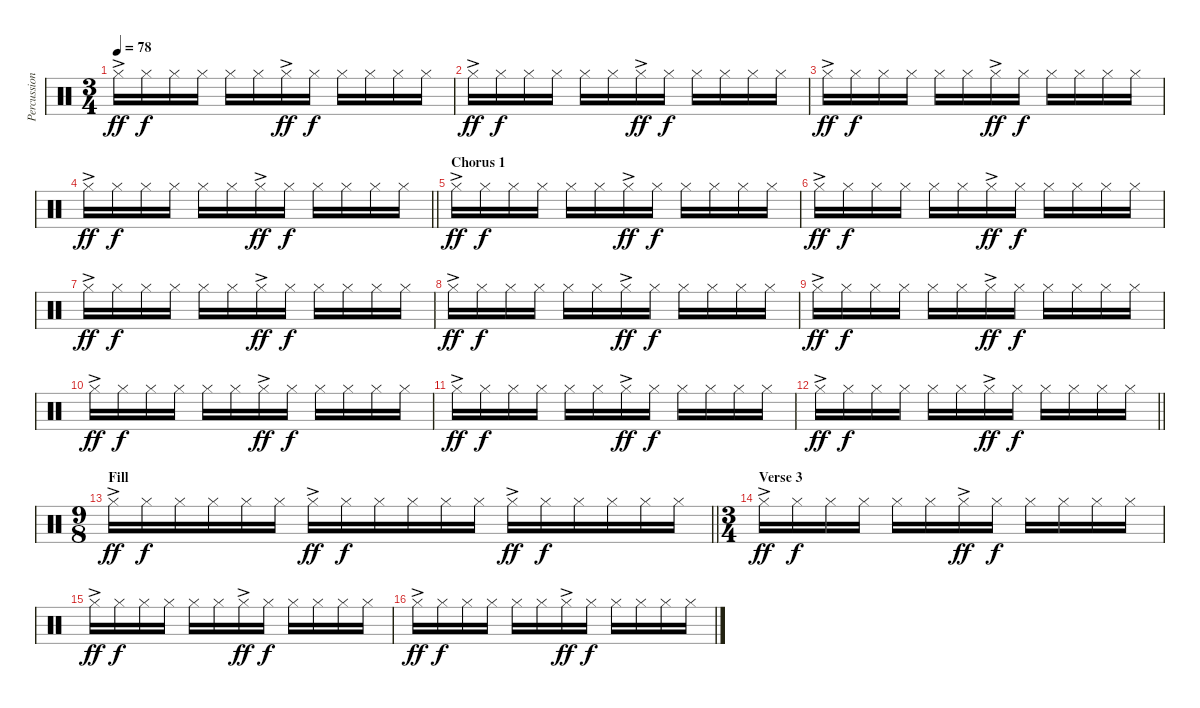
\track ("Percussion" "Percussion") {instrument percussion}
\staff {score}
\articulation defaults
\ts (3 4)
\tempo 78
\clef neutral
\ks c "Hi-Hat (closed)"{ac}.16{dy ff} "Hi-Hat (closed)".16{dy f} "Hi-Hat (closed)".16 "Hi-Hat (closed)".16 "Hi-Hat (closed)".16 "Hi-Hat (closed)".16 "Hi-Hat (closed)"{ac}.16{dy ff} "Hi-Hat (closed)".16{dy f} "Hi-Hat (closed)".16 "Hi-Hat (closed)".16 "Hi-Hat (closed)".16 "Hi-Hat (closed)".16
|
"Hi-Hat (closed)"{ac}.16{dy ff} "Hi-Hat (closed)".16{dy f} "Hi-Hat (closed)".16 "Hi-Hat (closed)".16 "Hi-Hat (closed)".16 "Hi-Hat (closed)".16 "Hi-Hat (closed)"{ac}.16{dy ff} "Hi-Hat (closed)".16{dy f} "Hi-Hat (closed)".16 "Hi-Hat (closed)".16 "Hi-Hat (closed)".16 "Hi-Hat (closed)".16 |
"Hi-Hat (closed)"{ac}.16{dy ff} "Hi-Hat (closed)".16{dy f} "Hi-Hat (closed)".16 "Hi-Hat (closed)".16 "Hi-Hat (closed)".16 "Hi-Hat (closed)".16 "Hi-Hat (closed)"{ac}.16{dy ff} "Hi-Hat (closed)".16{dy f} "Hi-Hat (closed)".16 "Hi-Hat (closed)".16 "Hi-Hat (closed)".16 "Hi-Hat (closed)".16 |
\barLineRight lightlight "Hi-Hat (closed)"{ac}.16{dy ff} "Hi-Hat (closed)".16{dy f} "Hi-Hat (closed)".16 "Hi-Hat (closed)".16 "Hi-Hat (closed)".16 "Hi-Hat (closed)".16 "Hi-Hat (closed)"{ac}.16{dy ff} "Hi-Hat (closed)".16{dy f} "Hi-Hat (closed)".16 "Hi-Hat (closed)".16 "Hi-Hat (closed)".16 "Hi-Hat (closed)".16
|
\section ("" "Chorus 1")
"Hi-Hat (closed)"{ac}.16{dy ff} "Hi-Hat (closed)".16{dy f} "Hi-Hat (closed)".16 "Hi-Hat (closed)".16 "Hi-Hat (closed)".16 "Hi-Hat (closed)".16 "Hi-Hat (closed)"{ac}.16{dy ff} "Hi-Hat (closed)".16{dy f} "Hi-Hat (closed)".16 "Hi-Hat (closed)".16 "Hi-Hat (closed)".16 "Hi-Hat (closed)".16 |
"Hi-Hat (closed)"{ac}.16{dy ff} "Hi-Hat (closed)".16{dy f} "Hi-Hat (closed)".16 "Hi-Hat (closed)".16 "Hi-Hat (closed)".16 "Hi-Hat (closed)".16 "Hi-Hat (closed)"{ac}.16{dy ff} "Hi-Hat (closed)".16{dy f} "Hi-Hat (closed)".16 "Hi-Hat (closed)".16 "Hi-Hat (closed)".16 "Hi-Hat (closed)".16 |
"Hi-Hat (closed)"{ac}.16{dy ff} "Hi-Hat (closed)".16{dy f} "Hi-Hat (closed)".16 "Hi-Hat (closed)".16 "Hi-Hat (closed)".16 "Hi-Hat (closed)".16 "Hi-Hat (closed)"{ac}.16{dy ff} "Hi-Hat (closed)".16{dy f} "Hi-Hat (closed)".16 "Hi-Hat (closed)".16 "Hi-Hat (closed)".16 "Hi-Hat (closed)".16 |
"Hi-Hat (closed)"{ac}.16{dy ff} "Hi-Hat (closed)".16{dy f} "Hi-Hat (closed)".16 "Hi-Hat (closed)".16 "Hi-Hat (closed)".16 "Hi-Hat (closed)".16 "Hi-Hat (closed)"{ac}.16{dy ff} "Hi-Hat (closed)".16{dy f} "Hi-Hat (closed)".16 "Hi-Hat (closed)".16 "Hi-Hat (closed)".16 "Hi-Hat (closed)".16 |
"Hi-Hat (closed)"{ac}.16{dy ff} "Hi-Hat (closed)".16{dy f} "Hi-Hat (closed)".16 "Hi-Hat (closed)".16 "Hi-Hat (closed)".16 "Hi-Hat (closed)".16 "Hi-Hat (closed)"{ac}.16{dy ff} "Hi-Hat (closed)".16{dy f} "Hi-Hat (closed)".16 "Hi-Hat (closed)".16 "Hi-Hat (closed)".16 "Hi-Hat (closed)".16 |
"Hi-Hat (closed)"{ac}.16{dy ff} "Hi-Hat (closed)".16{dy f} "Hi-Hat (closed)".16 "Hi-Hat (closed)".16 "Hi-Hat (closed)".16 "Hi-Hat (closed)".16 "Hi-Hat (closed)"{ac}.16{dy ff} "Hi-Hat (closed)".16{dy f} "Hi-Hat (closed)".16 "Hi-Hat (closed)".16 "Hi-Hat (closed)".16 "Hi-Hat (closed)".16 |
"Hi-Hat (closed)"{ac}.16{dy ff} "Hi-Hat (closed)".16{dy f} "Hi-Hat (closed)".16 "Hi-Hat (closed)".16 "Hi-Hat (closed)".16 "Hi-Hat (closed)".16 "Hi-Hat (closed)"{ac}.16{dy ff} "Hi-Hat (closed)".16{dy f} "Hi-Hat (closed)".16 "Hi-Hat (closed)".16 "Hi-Hat (closed)".16 "Hi-Hat (closed)".16 |
\barLineRight lightlight "Hi-Hat (closed)"{ac}.16{dy ff} "Hi-Hat (closed)".16{dy f} "Hi-Hat (closed)".16 "Hi-Hat (closed)".16 "Hi-Hat (closed)".16 "Hi-Hat (closed)".16 "Hi-Hat (closed)"{ac}.16{dy ff} "Hi-Hat (closed)".16{dy f} "Hi-Hat (closed)".16 "Hi-Hat (closed)".16 "Hi-Hat (closed)".16 "Hi-Hat (closed)".16
|
\ts (9 8)
\section ("" "Fill")
\barLineRight lightlight "Hi-Hat (closed)"{ac}.16{dy ff} "Hi-Hat (closed)".16{dy f} "Hi-Hat (closed)".16 "Hi-Hat (closed)".16 "Hi-Hat (closed)".16 "Hi-Hat (closed)".16 "Hi-Hat (closed)"{ac}.16{dy ff} "Hi-Hat (closed)".16{dy f} "Hi-Hat (closed)".16 "Hi-Hat (closed)".16 "Hi-Hat (closed)".16 "Hi-Hat (closed)".16 "Hi-Hat (closed)"{ac}.16{dy ff} "Hi-Hat (closed)".16{dy f} "Hi-Hat (closed)".16 "Hi-Hat (closed)".16 "Hi-Hat (closed)".16 "Hi-Hat (closed)".16
|
\ts (3 4)
\section ("" "Verse 3")
"Hi-Hat (closed)"{ac}.16{dy ff} "Hi-Hat (closed)".16{dy f} "Hi-Hat (closed)".16 "Hi-Hat (closed)".16 "Hi-Hat (closed)".16 "Hi-Hat (closed)".16 "Hi-Hat (closed)"{ac}.16{dy ff} "Hi-Hat (closed)".16{dy f} "Hi-Hat (closed)".16 "Hi-Hat (closed)".16 "Hi-Hat (closed)".16 "Hi-Hat (closed)".16 |
"Hi-Hat (closed)"{ac}.16{dy ff} "Hi-Hat (closed)".16{dy f} "Hi-Hat (closed)".16 "Hi-Hat (closed)".16 "Hi-Hat (closed)".16 "Hi-Hat (closed)".16 "Hi-Hat (closed)"{ac}.16{dy ff} "Hi-Hat (closed)".16{dy f} "Hi-Hat (closed)".16 "Hi-Hat (closed)".16 "Hi-Hat (closed)".16 "Hi-Hat (closed)".16 |
"Hi-Hat (closed)"{ac}.16{dy ff} "Hi-Hat (closed)".16{dy f} "Hi-Hat (closed)".16 "Hi-Hat (closed)".16 "Hi-Hat (closed)".16 "Hi-Hat (closed)".16 "Hi-Hat (closed)"{ac}.16{dy ff} "Hi-Hat (closed)".16{dy f} "Hi-Hat (closed)".16 "Hi-Hat (closed)".16 "Hi-Hat (closed)".16 "Hi-Hat (closed)".16
